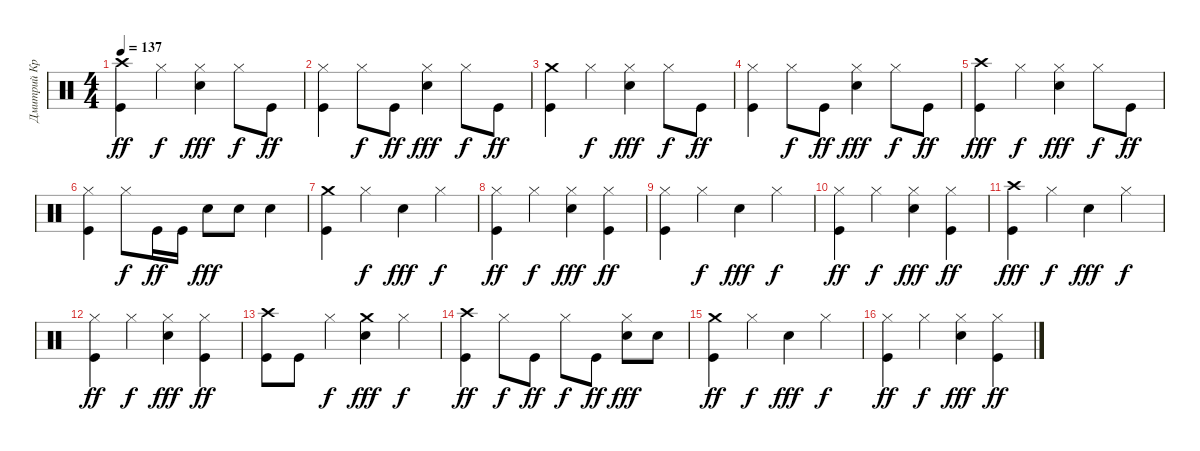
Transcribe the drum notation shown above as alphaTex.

\track ("Дмитрий Кревенков" "Дмитрий Кр") {instrument percussion}
\staff {score}
\articulation defaults
\ts (4 4)
\tempo 137
\clef neutral
\ks c
("Crash high (hit)" "Kick (hit)").4{dy ff} "Hi-Hat (closed)".4{dy f} ("Electric Snare (hit)" "Hi-Hat (closed)").4{dy fff} "Hi-Hat (closed)".8{dy f} "Kick (hit)".8{dy ff} |
("Kick (hit)" "Hi-Hat (closed)").4 "Hi-Hat (closed)".8{dy f} "Kick (hit)".8{dy ff} ("Electric Snare (hit)" "Hi-Hat (closed)").4{dy fff} "Hi-Hat (closed)".8{dy f} "Kick (hit)".8{dy ff} |
("Crash medium (hit)" "Kick (hit)").4 "Hi-Hat (closed)".4{dy f} ("Electric Snare (hit)" "Hi-Hat (closed)").4{dy fff} "Hi-Hat (closed)".8{dy f} "Kick (hit)".8{dy ff} |
("Kick (hit)" "Hi-Hat (closed)").4 "Hi-Hat (closed)".8{dy f} "Kick (hit)".8{dy ff} ("Electric Snare (hit)" "Hi-Hat (closed)").4{dy fff} "Hi-Hat (closed)".8{dy f} "Kick (hit)".8{dy ff} |
("Kick (hit)" "Crash high (hit)").4{dy fff} "Hi-Hat (closed)".4{dy f} ("Electric Snare (hit)" "Hi-Hat (closed)").4{dy fff} "Hi-Hat (closed)".8{dy f} "Kick (hit)".8{dy ff} |
("Kick (hit)" "Hi-Hat (closed)").4 "Hi-Hat (closed)".8{dy f} "Kick (hit)".16{dy ff} "Kick (hit)".16 "Electric Snare (hit)".8{dy fff} "Electric Snare (hit)".8 "Electric Snare (hit)".4 |
("Kick (hit)" "Crash medium (hit)").4 "Hi-Hat (closed)".4{dy f} "Electric Snare (hit)".4{dy fff} "Hi-Hat (closed)".4{dy f} |
("Kick (hit)" "Hi-Hat (closed)").4{dy ff} "Hi-Hat (closed)".4{dy f} ("Electric Snare (hit)" "Hi-Hat (closed)").4{dy fff} ("Kick (hit)" "Hi-Hat (closed)").4{dy ff} |
("Hi-Hat (closed)" "Kick (hit)").4 "Hi-Hat (closed)".4{dy f} "Electric Snare (hit)".4{dy fff} "Hi-Hat (closed)".4{dy f} |
("Kick (hit)" "Hi-Hat (closed)").4{dy ff} "Hi-Hat (closed)".4{dy f} ("Electric Snare (hit)" "Hi-Hat (closed)").4{dy fff} ("Kick (hit)" "Hi-Hat (closed)").4{dy ff} |
("Kick (hit)" "Crash high (hit)").4{dy fff} "Hi-Hat (closed)".4{dy f} "Electric Snare (hit)".4{dy fff} "Hi-Hat (closed)".4{dy f} |
("Kick (hit)" "Hi-Hat (closed)").4{dy ff} "Hi-Hat (closed)".4{dy f} ("Electric Snare (hit)" "Hi-Hat (closed)").4{dy fff} ("Kick (hit)" "Hi-Hat (closed)").4{dy ff} |
("Crash high (hit)" "Kick (hit)").8 "Kick (hit)".8 "Hi-Hat (closed)".4{dy f} ("Crash medium (hit)" "Electric Snare (hit)").4{dy fff} "Hi-Hat (closed)".4{dy f} |
("Crash high (hit)" "Kick (hit)").4{dy ff} "Hi-Hat (closed)".8{dy f} "Kick (hit)".8{dy ff} "Hi-Hat (closed)".8{dy f} "Kick (hit)".8{dy ff} ("Electric Snare (hit)" "Hi-Hat (closed)").8{dy fff} "Electric Snare (hit)".8 |
("Crash medium (hit)" "Kick (hit)").4{dy ff} "Hi-Hat (closed)".4{dy f} "Electric Snare (hit)".4{dy fff} "Hi-Hat (closed)".4{dy f} |
("Kick (hit)" "Hi-Hat (closed)").4{dy ff} "Hi-Hat (closed)".4{dy f} ("Electric Snare (hit)" "Hi-Hat (closed)").4{dy fff} ("Kick (hit)" "Hi-Hat (closed)").4{dy ff}
